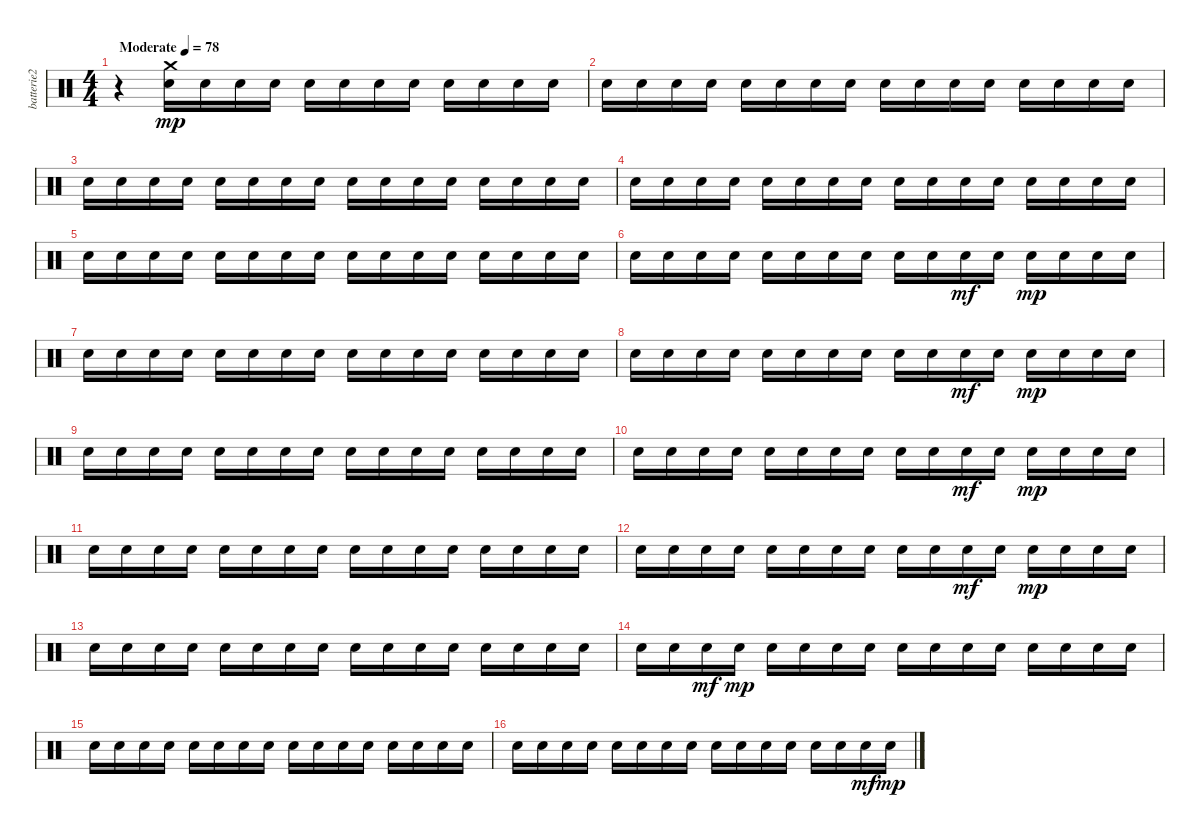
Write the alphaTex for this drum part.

\track ("batterie2" "batterie2") {instrument percussion}
\staff {score}
\articulation defaults
\ts (4 4)
\tempo (78 "Moderate")
\clef neutral
\ks c
r.4{dy mp} ("Snare (hit) 2" "Crash medium (hit)").16 "Snare (hit) 2".16 "Snare (hit) 2".16 "Snare (hit) 2".16 "Snare (hit) 2".16 "Snare (hit) 2".16 "Snare (hit) 2".16 "Snare (hit) 2".16 "Snare (hit) 2".16 "Snare (hit) 2".16 "Snare (hit) 2".16 "Snare (hit) 2".16 |
"Snare (hit) 2".16 "Snare (hit) 2".16 "Snare (hit) 2".16 "Snare (hit) 2".16 "Snare (hit) 2".16 "Snare (hit) 2".16 "Snare (hit) 2".16 "Snare (hit) 2".16 "Snare (hit) 2".16 "Snare (hit) 2".16 "Snare (hit) 2".16 "Snare (hit) 2".16 "Snare (hit) 2".16 "Snare (hit) 2".16 "Snare (hit) 2".16 "Snare (hit) 2".16 |
"Snare (hit) 2".16 "Snare (hit) 2".16 "Snare (hit) 2".16 "Snare (hit) 2".16 "Snare (hit) 2".16 "Snare (hit) 2".16 "Snare (hit) 2".16 "Snare (hit) 2".16 "Snare (hit) 2".16 "Snare (hit) 2".16 "Snare (hit) 2".16 "Snare (hit) 2".16 "Snare (hit) 2".16 "Snare (hit) 2".16 "Snare (hit) 2".16 "Snare (hit) 2".16 |
"Snare (hit) 2".16 "Snare (hit) 2".16 "Snare (hit) 2".16 "Snare (hit) 2".16 "Snare (hit) 2".16 "Snare (hit) 2".16 "Snare (hit) 2".16 "Snare (hit) 2".16 "Snare (hit) 2".16 "Snare (hit) 2".16 "Snare (hit) 2".16 "Snare (hit) 2".16 "Snare (hit) 2".16 "Snare (hit) 2".16 "Snare (hit) 2".16 "Snare (hit) 2".16 |
"Snare (hit) 2".16 "Snare (hit) 2".16 "Snare (hit) 2".16 "Snare (hit) 2".16 "Snare (hit) 2".16 "Snare (hit) 2".16 "Snare (hit) 2".16 "Snare (hit) 2".16 "Snare (hit) 2".16 "Snare (hit) 2".16 "Snare (hit) 2".16 "Snare (hit) 2".16 "Snare (hit) 2".16 "Snare (hit) 2".16 "Snare (hit) 2".16 "Snare (hit) 2".16 |
"Snare (hit) 2".16 "Snare (hit) 2".16 "Snare (hit) 2".16 "Snare (hit) 2".16 "Snare (hit) 2".16 "Snare (hit) 2".16 "Snare (hit) 2".16 "Snare (hit) 2".16 "Snare (hit) 2".16 "Snare (hit) 2".16 "Snare (hit) 2".16{dy mf} "Snare (hit) 2".16 "Snare (hit) 2".16{dy mp} "Snare (hit) 2".16 "Snare (hit) 2".16 "Snare (hit) 2".16 |
"Snare (hit) 2".16 "Snare (hit) 2".16 "Snare (hit) 2".16 "Snare (hit) 2".16 "Snare (hit) 2".16 "Snare (hit) 2".16 "Snare (hit) 2".16 "Snare (hit) 2".16 "Snare (hit) 2".16 "Snare (hit) 2".16 "Snare (hit) 2".16 "Snare (hit) 2".16 "Snare (hit) 2".16 "Snare (hit) 2".16 "Snare (hit) 2".16 "Snare (hit) 2".16 |
"Snare (hit) 2".16 "Snare (hit) 2".16 "Snare (hit) 2".16 "Snare (hit) 2".16 "Snare (hit) 2".16 "Snare (hit) 2".16 "Snare (hit) 2".16 "Snare (hit) 2".16 "Snare (hit) 2".16 "Snare (hit) 2".16 "Snare (hit) 2".16{dy mf} "Snare (hit) 2".16 "Snare (hit) 2".16{dy mp} "Snare (hit) 2".16 "Snare (hit) 2".16 "Snare (hit) 2".16 |
"Snare (hit) 2".16 "Snare (hit) 2".16 "Snare (hit) 2".16 "Snare (hit) 2".16 "Snare (hit) 2".16 "Snare (hit) 2".16 "Snare (hit) 2".16 "Snare (hit) 2".16 "Snare (hit) 2".16 "Snare (hit) 2".16 "Snare (hit) 2".16 "Snare (hit) 2".16 "Snare (hit) 2".16 "Snare (hit) 2".16 "Snare (hit) 2".16 "Snare (hit) 2".16 |
"Snare (hit) 2".16 "Snare (hit) 2".16 "Snare (hit) 2".16 "Snare (hit) 2".16 "Snare (hit) 2".16 "Snare (hit) 2".16 "Snare (hit) 2".16 "Snare (hit) 2".16 "Snare (hit) 2".16 "Snare (hit) 2".16 "Snare (hit) 2".16{dy mf} "Snare (hit) 2".16 "Snare (hit) 2".16{dy mp} "Snare (hit) 2".16 "Snare (hit) 2".16 "Snare (hit) 2".16 |
"Snare (hit) 2".16 "Snare (hit) 2".16 "Snare (hit) 2".16 "Snare (hit) 2".16 "Snare (hit) 2".16 "Snare (hit) 2".16 "Snare (hit) 2".16 "Snare (hit) 2".16 "Snare (hit) 2".16 "Snare (hit) 2".16 "Snare (hit) 2".16 "Snare (hit) 2".16 "Snare (hit) 2".16 "Snare (hit) 2".16 "Snare (hit) 2".16 "Snare (hit) 2".16 |
"Snare (hit) 2".16 "Snare (hit) 2".16 "Snare (hit) 2".16 "Snare (hit) 2".16 "Snare (hit) 2".16 "Snare (hit) 2".16 "Snare (hit) 2".16 "Snare (hit) 2".16 "Snare (hit) 2".16 "Snare (hit) 2".16 "Snare (hit) 2".16{dy mf} "Snare (hit) 2".16 "Snare (hit) 2".16{dy mp} "Snare (hit) 2".16 "Snare (hit) 2".16 "Snare (hit) 2".16 |
"Snare (hit) 2".16 "Snare (hit) 2".16 "Snare (hit) 2".16 "Snare (hit) 2".16 "Snare (hit) 2".16 "Snare (hit) 2".16 "Snare (hit) 2".16 "Snare (hit) 2".16 "Snare (hit) 2".16 "Snare (hit) 2".16 "Snare (hit) 2".16 "Snare (hit) 2".16 "Snare (hit) 2".16 "Snare (hit) 2".16 "Snare (hit) 2".16 "Snare (hit) 2".16 |
"Snare (hit) 2".16 "Snare (hit) 2".16 "Snare (hit) 2".16{dy mf} "Snare (hit) 2".16{dy mp} "Snare (hit) 2".16 "Snare (hit) 2".16 "Snare (hit) 2".16 "Snare (hit) 2".16 "Snare (hit) 2".16 "Snare (hit) 2".16 "Snare (hit) 2".16 "Snare (hit) 2".16 "Snare (hit) 2".16 "Snare (hit) 2".16 "Snare (hit) 2".16 "Snare (hit) 2".16 |
"Snare (hit) 2".16 "Snare (hit) 2".16 "Snare (hit) 2".16 "Snare (hit) 2".16 "Snare (hit) 2".16 "Snare (hit) 2".16 "Snare (hit) 2".16 "Snare (hit) 2".16 "Snare (hit) 2".16 "Snare (hit) 2".16 "Snare (hit) 2".16 "Snare (hit) 2".16 "Snare (hit) 2".16 "Snare (hit) 2".16 "Snare (hit) 2".16 "Snare (hit) 2".16 |
"Snare (hit) 2".16 "Snare (hit) 2".16 "Snare (hit) 2".16 "Snare (hit) 2".16 "Snare (hit) 2".16 "Snare (hit) 2".16 "Snare (hit) 2".16 "Snare (hit) 2".16 "Snare (hit) 2".16 "Snare (hit) 2".16 "Snare (hit) 2".16 "Snare (hit) 2".16 "Snare (hit) 2".16 "Snare (hit) 2".16 "Snare (hit) 2".16{dy mf} "Snare (hit) 2".16{dy mp}
